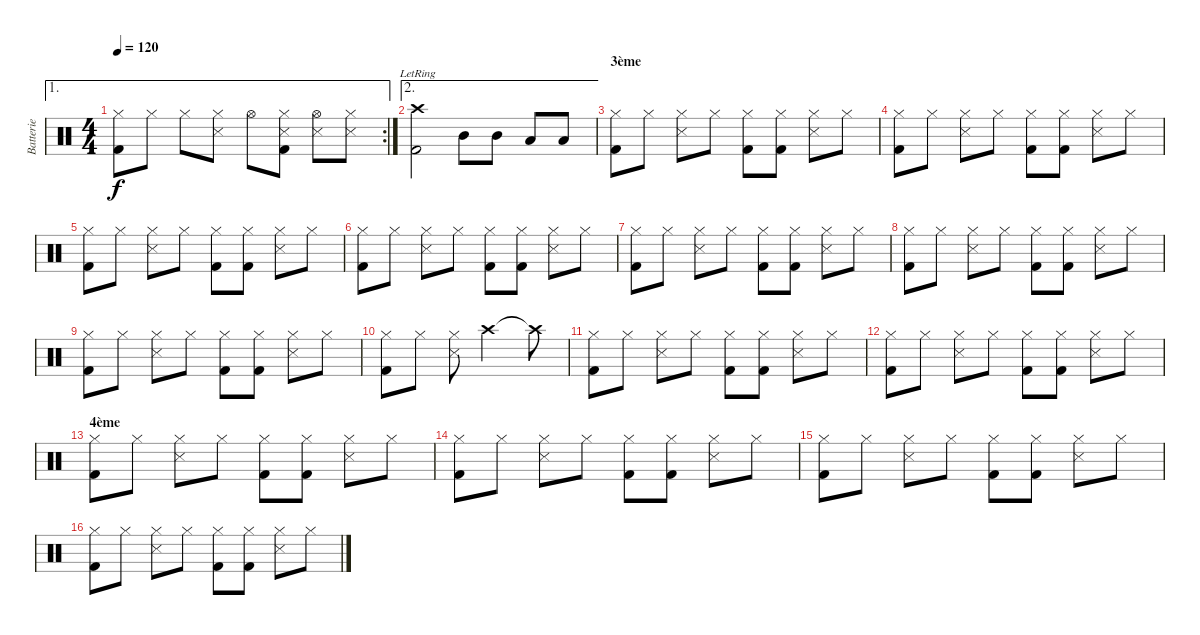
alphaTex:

\track ("Batterie" "Batterie") {instrument percussion}
\staff {score}
\articulation defaults
\ae 1
\rc 2
\ts (4 4)
\tempo 120
\clef neutral
\ks c
("Hi-Hat (closed)" "Kick (hit) 2").8{dy f} "Hi-Hat (closed)".8 "Hi-Hat (closed)".8 ("Hi-Hat (closed)" "Snare (side stick) 3").8 "Hi-Hat (open)".8 ("Hi-Hat (closed)" "Snare (side stick) 3" "Kick (hit) 2").8 ("Hi-Hat (open)" "Snare (side stick) 3").8 ("Hi-Hat (closed)" "Snare (side stick) 3").8 |
\ae 2
("Crash high (hit)"{lr} "Kick (hit) 2"{lr}).2 "Mid Tom (hit)".8 "Mid Tom (hit)".8 "Low Tom (hit)".8 "Low Tom (hit)".8 |
\section ("" "3ème")
("Hi-Hat (closed)" "Kick (hit) 2").8 "Hi-Hat (closed)".8 ("Hi-Hat (closed)" "Snare (side stick) 3").8 "Hi-Hat (closed)".8 ("Hi-Hat (closed)" "Kick (hit) 2").8 ("Hi-Hat (closed)" "Kick (hit) 2").8 ("Hi-Hat (closed)" "Snare (side stick) 3").8 "Hi-Hat (closed)".8 |
("Hi-Hat (closed)" "Kick (hit) 2").8 "Hi-Hat (closed)".8 ("Hi-Hat (closed)" "Snare (side stick) 3").8 "Hi-Hat (closed)".8 ("Hi-Hat (closed)" "Kick (hit) 2").8 ("Hi-Hat (closed)" "Kick (hit) 2").8 ("Hi-Hat (closed)" "Snare (side stick) 3").8 "Hi-Hat (closed)".8 |
("Hi-Hat (closed)" "Kick (hit) 2").8 "Hi-Hat (closed)".8 ("Hi-Hat (closed)" "Snare (side stick) 3").8 "Hi-Hat (closed)".8 ("Hi-Hat (closed)" "Kick (hit) 2").8 ("Hi-Hat (closed)" "Kick (hit) 2").8 ("Hi-Hat (closed)" "Snare (side stick) 3").8 "Hi-Hat (closed)".8 |
("Hi-Hat (closed)" "Kick (hit) 2").8 "Hi-Hat (closed)".8 ("Hi-Hat (closed)" "Snare (side stick) 3").8 "Hi-Hat (closed)".8 ("Hi-Hat (closed)" "Kick (hit) 2").8 ("Hi-Hat (closed)" "Kick (hit) 2").8 ("Hi-Hat (closed)" "Snare (side stick) 3").8 "Hi-Hat (closed)".8 |
("Hi-Hat (closed)" "Kick (hit) 2").8 "Hi-Hat (closed)".8 ("Hi-Hat (closed)" "Snare (side stick) 3").8 "Hi-Hat (closed)".8 ("Hi-Hat (closed)" "Kick (hit) 2").8 ("Hi-Hat (closed)" "Kick (hit) 2").8 ("Hi-Hat (closed)" "Snare (side stick) 3").8 "Hi-Hat (closed)".8 |
("Hi-Hat (closed)" "Kick (hit) 2").8 "Hi-Hat (closed)".8 ("Hi-Hat (closed)" "Snare (side stick) 3").8 "Hi-Hat (closed)".8 ("Hi-Hat (closed)" "Kick (hit) 2").8 ("Hi-Hat (closed)" "Kick (hit) 2").8 ("Hi-Hat (closed)" "Snare (side stick) 3").8 "Hi-Hat (closed)".8 |
("Hi-Hat (closed)" "Kick (hit) 2").8 "Hi-Hat (closed)".8 ("Hi-Hat (closed)" "Snare (side stick) 3").8 "Hi-Hat (closed)".8 ("Hi-Hat (closed)" "Kick (hit) 2").8 ("Hi-Hat (closed)" "Kick (hit) 2").8 ("Hi-Hat (closed)" "Snare (side stick) 3").8 "Hi-Hat (closed)".8 |
("Hi-Hat (closed)" "Kick (hit) 2").8 "Hi-Hat (closed)".8 ("Hi-Hat (closed)" "Snare (side stick) 3").8 "Crash high (hit)".2 "Crash high (hit)"{t}.8 |
("Hi-Hat (closed)" "Kick (hit) 2").8 "Hi-Hat (closed)".8 ("Hi-Hat (closed)" "Snare (side stick) 3").8 "Hi-Hat (closed)".8 ("Hi-Hat (closed)" "Kick (hit) 2").8 ("Hi-Hat (closed)" "Kick (hit) 2").8 ("Hi-Hat (closed)" "Snare (side stick) 3").8 "Hi-Hat (closed)".8 |
("Hi-Hat (closed)" "Kick (hit) 2").8 "Hi-Hat (closed)".8 ("Hi-Hat (closed)" "Snare (side stick) 3").8 "Hi-Hat (closed)".8 ("Hi-Hat (closed)" "Kick (hit) 2").8 ("Hi-Hat (closed)" "Kick (hit) 2").8 ("Hi-Hat (closed)" "Snare (side stick) 3").8 "Hi-Hat (closed)".8 |
\section ("" "4ème")
("Hi-Hat (closed)" "Kick (hit) 2").8 "Hi-Hat (closed)".8 ("Hi-Hat (closed)" "Snare (side stick) 3").8 "Hi-Hat (closed)".8 ("Hi-Hat (closed)" "Kick (hit) 2").8 ("Hi-Hat (closed)" "Kick (hit) 2").8 ("Hi-Hat (closed)" "Snare (side stick) 3").8 "Hi-Hat (closed)".8 |
("Hi-Hat (closed)" "Kick (hit) 2").8 "Hi-Hat (closed)".8 ("Hi-Hat (closed)" "Snare (side stick) 3").8 "Hi-Hat (closed)".8 ("Hi-Hat (closed)" "Kick (hit) 2").8 ("Hi-Hat (closed)" "Kick (hit) 2").8 ("Hi-Hat (closed)" "Snare (side stick) 3").8 "Hi-Hat (closed)".8 |
("Hi-Hat (closed)" "Kick (hit) 2").8 "Hi-Hat (closed)".8 ("Hi-Hat (closed)" "Snare (side stick) 3").8 "Hi-Hat (closed)".8 ("Hi-Hat (closed)" "Kick (hit) 2").8 ("Hi-Hat (closed)" "Kick (hit) 2").8 ("Hi-Hat (closed)" "Snare (side stick) 3").8 "Hi-Hat (closed)".8 |
("Hi-Hat (closed)" "Kick (hit) 2").8 "Hi-Hat (closed)".8 ("Hi-Hat (closed)" "Snare (side stick) 3").8 "Hi-Hat (closed)".8 ("Hi-Hat (closed)" "Kick (hit) 2").8 ("Hi-Hat (closed)" "Kick (hit) 2").8 ("Hi-Hat (closed)" "Snare (side stick) 3").8 "Hi-Hat (closed)".8
